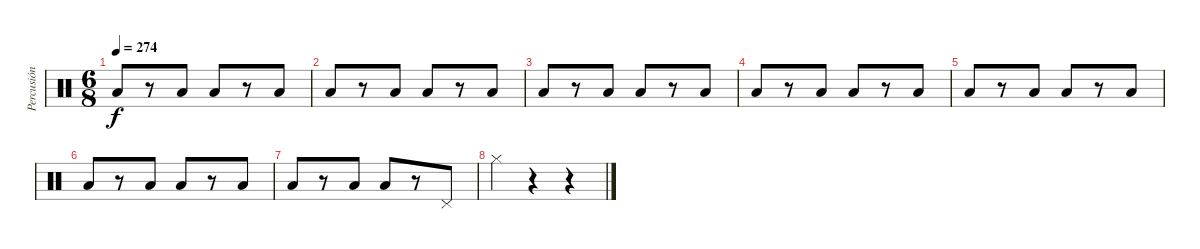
\track ("Percusión Bastarda" "Percusión ") {instrument percussion}
\staff {score}
\articulation defaults
\ts (6 8)
\tempo 274
\clef neutral
\ks c "Low Floor Tom (hit)".8{dy f}
r.8 "Low Floor Tom (hit)".8 "Low Tom (hit)".8 r.8 "Low Tom (hit)".8 |
"Low Floor Tom (hit)".8 r.8 "Low Floor Tom (hit)".8 "Low Tom (hit)".8 r.8 "Low Tom (hit)".8 |
"Low Floor Tom (hit)".8 r.8 "Low Floor Tom (hit)".8 "Low Tom (hit)".8 r.8 "Low Tom (hit)".8 |
"Low Floor Tom (hit)".8 r.8 "Low Floor Tom (hit)".8 "Low Tom (hit)".8 r.8 "Low Tom (hit)".8 |
"Low Floor Tom (hit)".8 r.8 "Low Floor Tom (hit)".8 "Low Tom (hit)".8 r.8 "Low Tom (hit)".8 |
"Low Floor Tom (hit)".8 r.8 "Low Floor Tom (hit)".8 "Low Tom (hit)".8 r.8 "Low Tom (hit)".8 |
"Low Floor Tom (hit)".8 r.8 "Low Floor Tom (hit)".8 "Low Tom (hit)".8 r.8 "Pedal Hi-Hat (hit)".8 |
"Hi-Hat (closed)".4 r.4 r.4
